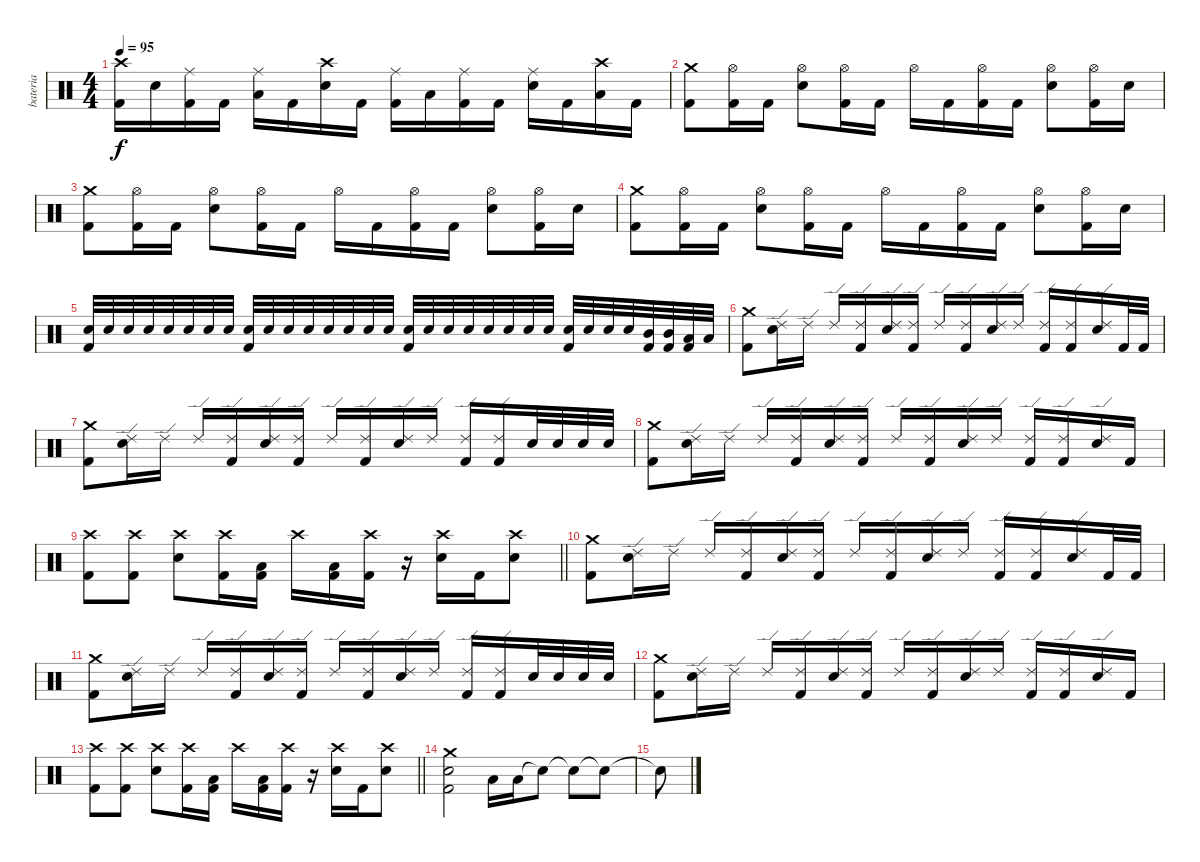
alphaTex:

\track ("bateria" "bateria") {instrument percussion}
\staff {score}
\articulation defaults
\ts (4 4)
\tempo 95
\clef neutral
\ks c
("Crash high (hit)" "Kick (hit) 2").16{dy f} "Electric Snare (hit)".16 ("Ride (middle)" "Kick (hit) 2").16 "Kick (hit) 2".16 ("Ride (middle)" "Low Tom (hit)").16 "Kick (hit) 2".16 ("Crash high (hit)" "Electric Snare (hit)").16 "Kick (hit) 2".16 ("Ride (middle)" "Kick (hit) 2").16 "Low Tom (hit)".16 ("Ride (middle)" "Kick (hit) 2").16 "Kick (hit) 2".16 ("Ride (middle)" "Electric Snare (hit)").16 "Kick (hit) 2".16 ("Crash high (hit)" "Low Tom (hit)").16 "Kick (hit) 2".16 |
("Crash medium (hit)" "Kick (hit) 2").8 ("Hi-Hat (open)" "Kick (hit) 2").16 "Kick (hit) 2".16 ("Hi-Hat (open)" "Electric Snare (hit)").8 ("Hi-Hat (open)" "Kick (hit) 2").16 "Kick (hit) 2".16 "Hi-Hat (open)".16 "Kick (hit) 2".16 ("Hi-Hat (open)" "Kick (hit) 2").16 "Kick (hit) 2".16 ("Hi-Hat (open)" "Electric Snare (hit)").8 ("Hi-Hat (open)" "Kick (hit) 2").16 "Electric Snare (hit)".16 |
("Crash medium (hit)" "Kick (hit) 2").8 ("Hi-Hat (open)" "Kick (hit) 2").16 "Kick (hit) 2".16 ("Hi-Hat (open)" "Electric Snare (hit)").8 ("Hi-Hat (open)" "Kick (hit) 2").16 "Kick (hit) 2".16 "Hi-Hat (open)".16 "Kick (hit) 2".16 ("Hi-Hat (open)" "Kick (hit) 2").16 "Kick (hit) 2".16 ("Hi-Hat (open)" "Electric Snare (hit)").8 ("Hi-Hat (open)" "Kick (hit) 2").16 "Electric Snare (hit)".16 |
("Crash medium (hit)" "Kick (hit) 2").8 ("Hi-Hat (open)" "Kick (hit) 2").16 "Kick (hit) 2".16 ("Hi-Hat (open)" "Electric Snare (hit)").8 ("Hi-Hat (open)" "Kick (hit) 2").16 "Kick (hit) 2".16 "Hi-Hat (open)".16 "Kick (hit) 2".16 ("Hi-Hat (open)" "Kick (hit) 2").16 "Kick (hit) 2".16 ("Hi-Hat (open)" "Electric Snare (hit)").8 ("Hi-Hat (open)" "Kick (hit) 2").16 "Electric Snare (hit)".16 |
("Electric Snare (hit)" "Kick (hit) 2").32 "Electric Snare (hit)".32 "Electric Snare (hit)".32 "Electric Snare (hit)".32 "Electric Snare (hit)".32 "Electric Snare (hit)".32 "Electric Snare (hit)".32 "Electric Snare (hit)".32 ("Electric Snare (hit)" "Kick (hit) 2").32 "Electric Snare (hit)".32 "Electric Snare (hit)".32 "Electric Snare (hit)".32 "Electric Snare (hit)".32 "Electric Snare (hit)".32 "Electric Snare (hit)".32 "Electric Snare (hit)".32 ("Electric Snare (hit)" "Kick (hit) 2").32 "Electric Snare (hit)".32 "Electric Snare (hit)".32 "Electric Snare (hit)".32 "Electric Snare (hit)".32 "Electric Snare (hit)".32 "Electric Snare (hit)".32 "Electric Snare (hit)".32 ("Electric Snare (hit)" "Kick (hit) 2").32 "Electric Snare (hit)".32 "Electric Snare (hit)".32 "Electric Snare (hit)".32 ("Mid Tom (hit)" "Kick (hit) 2").32 ("Mid Tom (hit)" "Kick (hit) 2").32 ("Low Tom (hit)" "Kick (hit) 2").32 "Low Tom (hit)".32 |
("Crash medium (hit)" "Kick (hit) 2").8 ("Ride (edge) 2" "Electric Snare (hit)").16 "Ride (edge) 2".16 "Ride (edge) 2".16 ("Ride (edge) 2" "Kick (hit) 2").16 ("Ride (edge) 2" "Electric Snare (hit)").16 ("Ride (edge) 2" "Kick (hit) 2").16 "Ride (edge) 2".16 ("Ride (edge) 2" "Kick (hit) 2").16 ("Ride (edge) 2" "Electric Snare (hit)").16 "Ride (edge) 2".16 ("Ride (edge) 2" "Kick (hit) 2").16 ("Ride (edge) 2" "Kick (hit) 2").16 ("Ride (edge) 2" "Electric Snare (hit)").16 "Kick (hit) 2".32 "Kick (hit) 2".32 |
("Crash medium (hit)" "Kick (hit) 2").8 ("Ride (edge) 2" "Electric Snare (hit)").16 "Ride (edge) 2".16 "Ride (edge) 2".16 ("Ride (edge) 2" "Kick (hit) 2").16 ("Ride (edge) 2" "Electric Snare (hit)").16 ("Ride (edge) 2" "Kick (hit) 2").16 "Ride (edge) 2".16 ("Ride (edge) 2" "Kick (hit) 2").16 ("Ride (edge) 2" "Electric Snare (hit)").16 "Ride (edge) 2".16 ("Ride (edge) 2" "Kick (hit) 2").16 ("Ride (edge) 2" "Kick (hit) 2").16 "Electric Snare (hit)".32 "Electric Snare (hit)".32 "Electric Snare (hit)".32 "Electric Snare (hit)".32 |
("Crash medium (hit)" "Kick (hit) 2").8 ("Ride (edge) 2" "Electric Snare (hit)").16 "Ride (edge) 2".16 "Ride (edge) 2".16 ("Ride (edge) 2" "Kick (hit) 2").16 ("Ride (edge) 2" "Electric Snare (hit)").16 ("Ride (edge) 2" "Kick (hit) 2").16 "Ride (edge) 2".16 ("Ride (edge) 2" "Kick (hit) 2").16 ("Ride (edge) 2" "Electric Snare (hit)").16 "Ride (edge) 2".16 ("Ride (edge) 2" "Kick (hit) 2").16 ("Ride (edge) 2" "Kick (hit) 2").16 ("Ride (edge) 2" "Electric Snare (hit)").16 "Kick (hit) 2".16 |
\barLineRight lightlight
("Crash high (hit)" "Kick (hit) 2").8 ("Crash high (hit)" "Kick (hit) 2").8 ("Crash high (hit)" "Electric Snare (hit)").8 ("Crash high (hit)" "Kick (hit) 2").16 ("Low Tom (hit)" "Kick (hit) 2").16 "Crash high (hit)".16 ("Low Tom (hit)" "Kick (hit) 2").16 ("Crash high (hit)" "Kick (hit) 2").16 r.16 ("Crash high (hit)" "Electric Snare (hit)").16 "Kick (hit) 2".16 ("Crash high (hit)" "Electric Snare (hit)").8 |
("Crash medium (hit)" "Kick (hit) 2").8 ("Ride (edge) 2" "Electric Snare (hit)").16 "Ride (edge) 2".16 "Ride (edge) 2".16 ("Ride (edge) 2" "Kick (hit) 2").16 ("Ride (edge) 2" "Electric Snare (hit)").16 ("Ride (edge) 2" "Kick (hit) 2").16 "Ride (edge) 2".16 ("Ride (edge) 2" "Kick (hit) 2").16 ("Ride (edge) 2" "Electric Snare (hit)").16 "Ride (edge) 2".16 ("Ride (edge) 2" "Kick (hit) 2").16 ("Ride (edge) 2" "Kick (hit) 2").16 ("Ride (edge) 2" "Electric Snare (hit)").16 "Kick (hit) 2".32 "Kick (hit) 2".32 |
("Crash medium (hit)" "Kick (hit) 2").8 ("Ride (edge) 2" "Electric Snare (hit)").16 "Ride (edge) 2".16 "Ride (edge) 2".16 ("Ride (edge) 2" "Kick (hit) 2").16 ("Ride (edge) 2" "Electric Snare (hit)").16 ("Ride (edge) 2" "Kick (hit) 2").16 "Ride (edge) 2".16 ("Ride (edge) 2" "Kick (hit) 2").16 ("Ride (edge) 2" "Electric Snare (hit)").16 "Ride (edge) 2".16 ("Ride (edge) 2" "Kick (hit) 2").16 ("Ride (edge) 2" "Kick (hit) 2").16 "Electric Snare (hit)".32 "Electric Snare (hit)".32 "Electric Snare (hit)".32 "Electric Snare (hit)".32 |
("Crash medium (hit)" "Kick (hit) 2").8 ("Ride (edge) 2" "Electric Snare (hit)").16 "Ride (edge) 2".16 "Ride (edge) 2".16 ("Ride (edge) 2" "Kick (hit) 2").16 ("Ride (edge) 2" "Electric Snare (hit)").16 ("Ride (edge) 2" "Kick (hit) 2").16 "Ride (edge) 2".16 ("Ride (edge) 2" "Kick (hit) 2").16 ("Ride (edge) 2" "Electric Snare (hit)").16 "Ride (edge) 2".16 ("Ride (edge) 2" "Kick (hit) 2").16 ("Ride (edge) 2" "Kick (hit) 2").16 ("Ride (edge) 2" "Electric Snare (hit)").16 "Kick (hit) 2".16 |
\barLineRight lightlight
("Crash high (hit)" "Kick (hit) 2").8 ("Crash high (hit)" "Kick (hit) 2").8 ("Crash high (hit)" "Electric Snare (hit)").8 ("Crash high (hit)" "Kick (hit) 2").16 ("Low Tom (hit)" "Kick (hit) 2").16 "Crash high (hit)".16 ("Low Tom (hit)" "Kick (hit) 2").16 ("Crash high (hit)" "Kick (hit) 2").16 r.16 ("Crash high (hit)" "Electric Snare (hit)").16 "Kick (hit) 2".16 ("Crash high (hit)" "Electric Snare (hit)").8 |
("Crash medium (hit)" "Electric Snare (hit)" "Kick (hit) 2").2 "Low Tom (hit)".16 "Low Floor Tom (hit)".16 "Snare (hit)"{t}.8 "Snare (hit)"{t}.8 "Snare (hit)"{t}.8 |
"Snare (hit)"{t}.8
